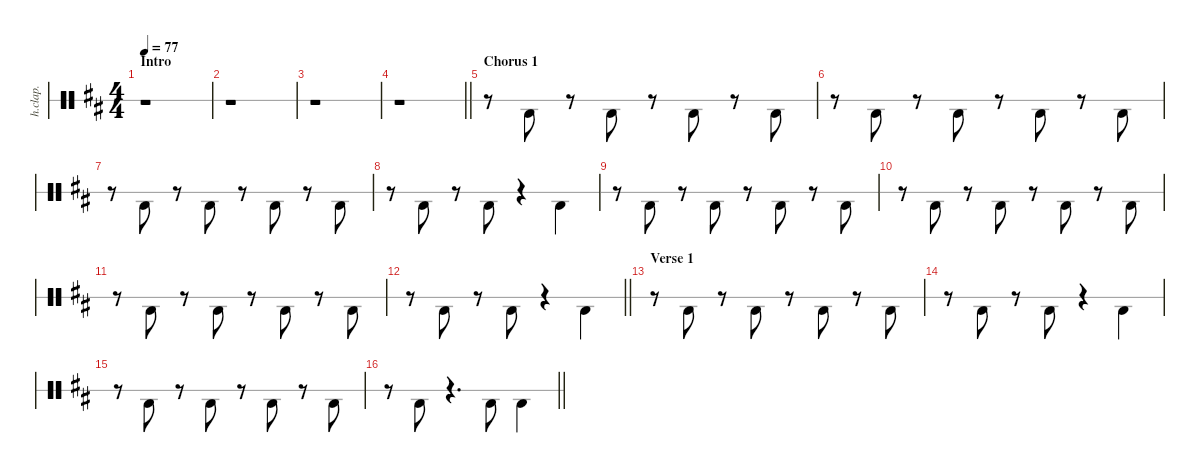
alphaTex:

\defaultSystemsLayout 4
\hideDynamics
\bracketExtendMode nobrackets
\otherSystemsTrackNameOrientation horizontal
\track ("Hand Clap" "h.clap.") {defaultSystemsLayout 8 instrument percussion}
\staff {score 1}
\articulation defaults
\ts (4 4)
\beaming (8 4 4)
\section ("" "Intro")
\tempo 77
\clef neutral
\ks bminor
r.1{dy mf beam Down} |
r.1{beam Down} |
r.1{beam Down} |
\barLineRight lightlight
r.1{beam Down} |
\section ("" "Chorus 1")
r.8{beam Down} "Hand Clap (hit)"{acc forcenatural}.8{beam Down beam split} r.8{beam Down beam split} "Hand Clap (hit)"{acc forcenatural}.8{beam Down beam split} r.8{beam Down beam split} "Hand Clap (hit)"{acc forcenatural}.8{beam Down beam split} r.8{beam Down beam split} "Hand Clap (hit)"{acc forcenatural}.8{beam Down} |
r.8{beam Down} "Hand Clap (hit)"{acc forcenatural}.8{beam Down beam split} r.8{beam Down beam split} "Hand Clap (hit)"{acc forcenatural}.8{beam Down beam split} r.8{beam Down beam split} "Hand Clap (hit)"{acc forcenatural}.8{beam Down beam split} r.8{beam Down beam split} "Hand Clap (hit)"{acc forcenatural}.8{beam Down} |
r.8{beam Down} "Hand Clap (hit)"{acc forcenatural}.8{beam Down beam split} r.8{beam Down beam split} "Hand Clap (hit)"{acc forcenatural}.8{beam Down beam split} r.8{beam Down beam split} "Hand Clap (hit)"{acc forcenatural}.8{beam Down beam split} r.8{beam Down beam split} "Hand Clap (hit)"{acc forcenatural}.8{beam Down} |
r.8{beam Down} "Hand Clap (hit)"{acc forcenatural}.8{beam Down beam split} r.8{beam Down beam split} "Hand Clap (hit)"{acc forcenatural}.8{beam Down beam split} r.4{beam Down beam split} "Hand Clap (hit)"{acc forcenatural}.4{beam Down} |
r.8{beam Down} "Hand Clap (hit)"{acc forcenatural}.8{beam Down beam split} r.8{beam Down beam split} "Hand Clap (hit)"{acc forcenatural}.8{beam Down beam split} r.8{beam Down beam split} "Hand Clap (hit)"{acc forcenatural}.8{beam Down beam split} r.8{beam Down beam split} "Hand Clap (hit)"{acc forcenatural}.8{beam Down} |
r.8{beam Down} "Hand Clap (hit)"{acc forcenatural}.8{beam Down beam split} r.8{beam Down beam split} "Hand Clap (hit)"{acc forcenatural}.8{beam Down beam split} r.8{beam Down beam split} "Hand Clap (hit)"{acc forcenatural}.8{beam Down beam split} r.8{beam Down beam split} "Hand Clap (hit)"{acc forcenatural}.8{beam Down} |
r.8{beam Down} "Hand Clap (hit)"{acc forcenatural}.8{beam Down beam split} r.8{beam Down beam split} "Hand Clap (hit)"{acc forcenatural}.8{beam Down beam split} r.8{beam Down beam split} "Hand Clap (hit)"{acc forcenatural}.8{beam Down beam split} r.8{beam Down beam split} "Hand Clap (hit)"{acc forcenatural}.8{beam Down} |
\barLineRight lightlight
r.8{beam Down} "Hand Clap (hit)"{acc forcenatural}.8{beam Down beam split} r.8{beam Down beam split} "Hand Clap (hit)"{acc forcenatural}.8{beam Down beam split} r.4{beam Down beam split} "Hand Clap (hit)"{acc forcenatural}.4{beam Down} |
\section ("" "Verse 1")
r.8{beam Down} "Hand Clap (hit)"{acc forcenatural}.8{beam Down beam split} r.8{beam Down beam split} "Hand Clap (hit)"{acc forcenatural}.8{beam Down beam split} r.8{beam Down beam split} "Hand Clap (hit)"{acc forcenatural}.8{beam Down beam split} r.8{beam Down beam split} "Hand Clap (hit)"{acc forcenatural}.8{beam Down} |
r.8{beam Down} "Hand Clap (hit)"{acc forcenatural}.8{beam Down beam split} r.8{beam Down beam split} "Hand Clap (hit)"{acc forcenatural}.8{beam Down beam split} r.4{beam Down beam split} "Hand Clap (hit)"{acc forcenatural}.4{beam Down} |
r.8{beam Down} "Hand Clap (hit)"{acc forcenatural}.8{beam Down beam split} r.8{beam Down beam split} "Hand Clap (hit)"{acc forcenatural}.8{beam Down beam split} r.8{beam Down beam split} "Hand Clap (hit)"{acc forcenatural}.8{beam Down beam split} r.8{beam Down beam split} "Hand Clap (hit)"{acc forcenatural}.8{beam Down} |
\barLineRight lightlight
r.8{beam Down} "Hand Clap (hit)"{acc forcenatural}.8{beam Down beam split} r.4{d beam Down beam split} "Hand Clap (hit)"{acc forcenatural}.8{beam Down} "Hand Clap (hit)"{acc forcenatural}.4{beam Down}
